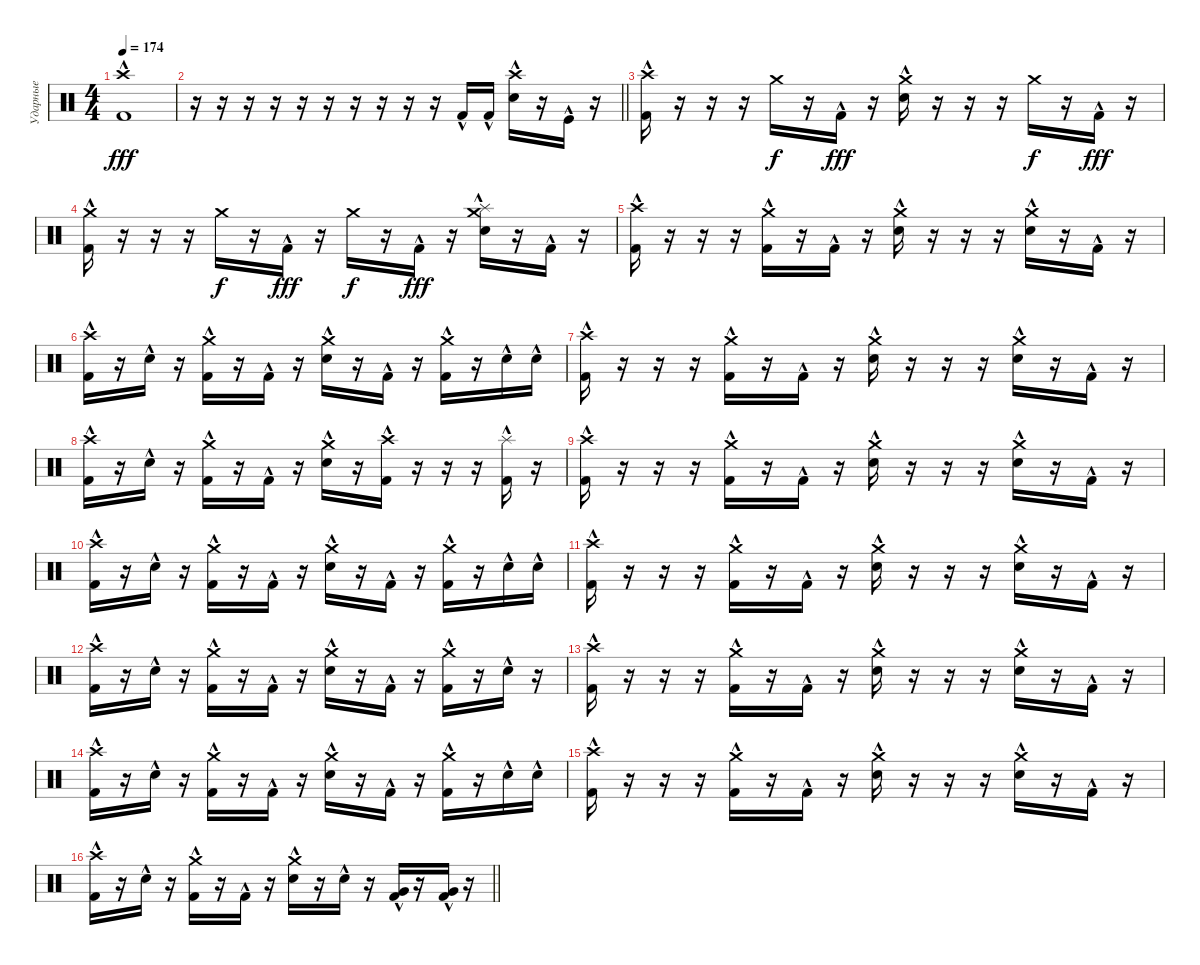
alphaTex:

\track ("Ударные" "Ударные") {instrument percussion}
\staff {score}
\articulation defaults
\ts (4 4)
\section ("" "")
\tempo 174
\clef neutral
\ks c
("Kick (hit) 2"{hac} "Crash high (hit)").1{dy fff} |
\barLineRight lightlight
r.16 r.16 r.16 r.16 r.16 r.16 r.16 r.16 r.16 r.16 "Kick (hit) 2"{hac}.16 "Kick (hit) 2"{hac}.16 ("Snare (hit) 2"{hac} "Crash high (hit)").16 r.16 "Kick (hit)"{hac}.16 r.16 |
("Crash high (hit)" "Kick (hit) 2"{hac}).16 r.16 r.16 r.16 "Crash medium (hit)".16{dy f} r.16 "Kick (hit) 2"{hac}.16{dy fff} r.16 ("Crash medium (hit)" "Snare (hit) 2"{hac}).16 r.16 r.16 r.16 "Crash medium (hit)".16{dy f} r.16 "Kick (hit) 2"{hac}.16{dy fff} r.16 |
("Crash medium (hit)" "Kick (hit) 2"{hac}).16 r.16 r.16 r.16 "Crash medium (hit)".16{dy f} r.16 "Kick (hit) 2"{hac}.16{dy fff} r.16 "Crash medium (hit)".16{dy f} r.16 "Kick (hit) 2"{hac}.16{dy fff} r.16 ("Crash medium (hit)" "Snare (hit) 2"{hac} "Splash (hit)").16 r.16 "Kick (hit) 2"{hac}.16 r.16 |
("Crash high (hit)" "Kick (hit) 2"{hac}).16 r.16 r.16 r.16 ("Crash medium (hit)" "Kick (hit) 2"{hac}).16 r.16 "Kick (hit) 2"{hac}.16 r.16 ("Crash medium (hit)" "Snare (hit) 2"{hac}).16 r.16 r.16 r.16 ("Crash medium (hit)" "Snare (hit) 2"{hac}).16 r.16 "Kick (hit) 2"{hac}.16 r.16 |
("Crash high (hit)" "Kick (hit) 2"{hac}).16 r.16 "Snare (hit) 2"{hac}.16 r.16 ("Crash medium (hit)" "Kick (hit) 2"{hac}).16 r.16 "Kick (hit) 2"{hac}.16 r.16 ("Crash medium (hit)" "Snare (hit) 2"{hac}).16 r.16 "Kick (hit) 2"{hac}.16 r.16 ("Crash medium (hit)" "Kick (hit) 2"{hac}).16 r.16 "Snare (hit) 2"{hac}.16 "Snare (hit) 2"{hac}.16 |
("Crash high (hit)" "Kick (hit) 2"{hac}).16 r.16 r.16 r.16 ("Crash medium (hit)" "Kick (hit) 2"{hac}).16 r.16 "Kick (hit) 2"{hac}.16 r.16 ("Crash medium (hit)" "Snare (hit) 2"{hac}).16 r.16 r.16 r.16 ("Crash medium (hit)" "Snare (hit) 2"{hac}).16 r.16 "Kick (hit) 2"{hac}.16 r.16 |
("Crash high (hit)" "Kick (hit) 2"{hac}).16 r.16 "Snare (hit) 2"{hac}.16 r.16 ("Crash medium (hit)" "Kick (hit) 2"{hac}).16 r.16 "Kick (hit) 2"{hac}.16 r.16 ("Crash medium (hit)" "Snare (hit) 2"{hac}).16 r.16 ("Kick (hit) 2"{hac} "Crash high (hit)").16 r.16 r.16 r.16 ("Kick (hit) 2"{hac} "Splash (hit)").16 r.16 |
("Crash high (hit)" "Kick (hit) 2"{hac}).16 r.16 r.16 r.16 ("Crash medium (hit)" "Kick (hit) 2"{hac}).16 r.16 "Kick (hit) 2"{hac}.16 r.16 ("Crash medium (hit)" "Snare (hit) 2"{hac}).16 r.16 r.16 r.16 ("Crash medium (hit)" "Snare (hit) 2"{hac}).16 r.16 "Kick (hit) 2"{hac}.16 r.16 |
("Crash high (hit)" "Kick (hit) 2"{hac}).16 r.16 "Snare (hit) 2"{hac}.16 r.16 ("Crash medium (hit)" "Kick (hit) 2"{hac}).16 r.16 "Kick (hit) 2"{hac}.16 r.16 ("Crash medium (hit)" "Snare (hit) 2"{hac}).16 r.16 "Kick (hit) 2"{hac}.16 r.16 ("Crash medium (hit)" "Kick (hit) 2"{hac}).16 r.16 "Snare (hit) 2"{hac}.16 "Snare (hit) 2"{hac}.16 |
("Crash high (hit)" "Kick (hit) 2"{hac}).16 r.16 r.16 r.16 ("Crash medium (hit)" "Kick (hit) 2"{hac}).16 r.16 "Kick (hit) 2"{hac}.16 r.16 ("Crash medium (hit)" "Snare (hit) 2"{hac}).16 r.16 r.16 r.16 ("Crash medium (hit)" "Snare (hit) 2"{hac}).16 r.16 "Kick (hit) 2"{hac}.16 r.16 |
("Crash high (hit)" "Kick (hit) 2"{hac}).16 r.16 "Snare (hit) 2"{hac}.16 r.16 ("Crash medium (hit)" "Kick (hit) 2"{hac}).16 r.16 "Kick (hit) 2"{hac}.16 r.16 ("Crash medium (hit)" "Snare (hit) 2"{hac}).16 r.16 "Kick (hit) 2"{hac}.16 r.16 ("Crash medium (hit)" "Kick (hit) 2"{hac}).16 r.16 "Snare (hit) 2"{hac}.16 r.16 |
("Crash high (hit)" "Kick (hit) 2"{hac}).16 r.16 r.16 r.16 ("Crash medium (hit)" "Kick (hit) 2"{hac}).16 r.16 "Kick (hit) 2"{hac}.16 r.16 ("Crash medium (hit)" "Snare (hit) 2"{hac}).16 r.16 r.16 r.16 ("Crash medium (hit)" "Snare (hit) 2"{hac}).16 r.16 "Kick (hit) 2"{hac}.16 r.16 |
("Crash high (hit)" "Kick (hit) 2"{hac}).16 r.16 "Snare (hit) 2"{hac}.16 r.16 ("Crash medium (hit)" "Kick (hit) 2"{hac}).16 r.16 "Kick (hit) 2"{hac}.16 r.16 ("Crash medium (hit)" "Snare (hit) 2"{hac}).16 r.16 "Kick (hit) 2"{hac}.16 r.16 ("Crash medium (hit)" "Kick (hit) 2"{hac}).16 r.16 "Snare (hit) 2"{hac}.16 "Snare (hit) 2"{hac}.16 |
("Crash high (hit)" "Kick (hit) 2"{hac}).16 r.16 r.16 r.16 ("Crash medium (hit)" "Kick (hit) 2"{hac}).16 r.16 "Kick (hit) 2"{hac}.16 r.16 ("Crash medium (hit)" "Snare (hit) 2"{hac}).16 r.16 r.16 r.16 ("Crash medium (hit)" "Snare (hit) 2"{hac}).16 r.16 "Kick (hit) 2"{hac}.16 r.16 |
\barLineRight lightlight
("Crash high (hit)" "Kick (hit) 2"{hac}).16 r.16 "Snare (hit) 2"{hac}.16 r.16 ("Crash medium (hit)" "Kick (hit) 2"{hac}).16 r.16 "Kick (hit) 2"{hac}.16 r.16 ("Crash medium (hit)" "Snare (hit) 2"{hac}).16 r.16 "Snare (hit) 2"{hac}.16 r.16 ("Very Low Tom (hit)"{hac} "Kick (hit) 2").16 r.16 ("Very Low Tom (hit)"{hac} "Kick (hit) 2").16 r.16
